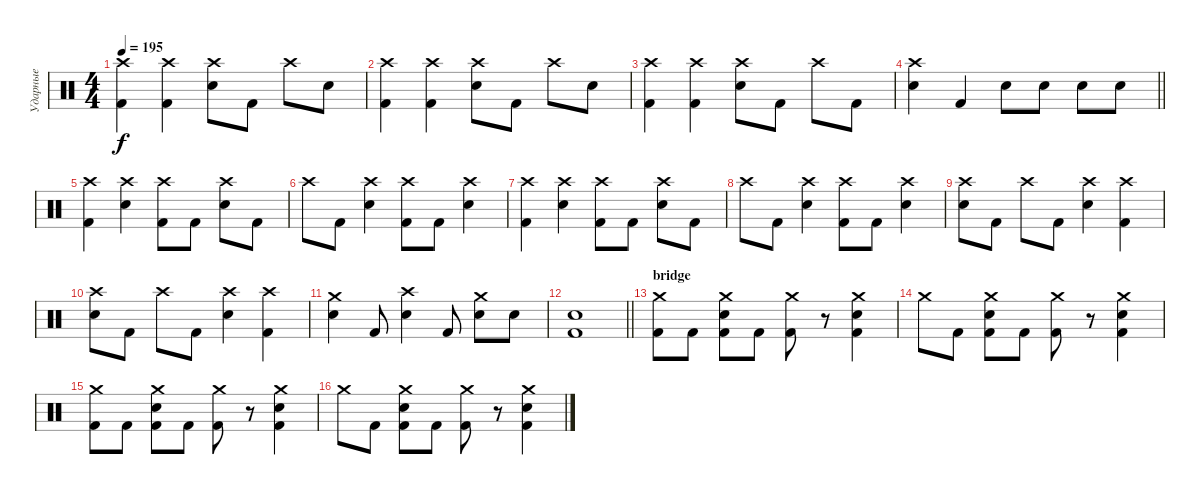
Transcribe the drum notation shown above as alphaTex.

\track ("Ударные" "Ударные") {instrument percussion}
\staff {score}
\articulation defaults
\ts (4 4)
\tempo 195
\clef neutral
\ks c
("Crash high (hit)" "Kick (hit) 2").4{dy f} ("Crash high (hit)" "Kick (hit) 2").4 ("Crash high (hit)" "Electric Snare (hit)").8 "Kick (hit) 2".8 "Crash high (hit)".8 "Electric Snare (hit)".8 |
("Crash high (hit)" "Kick (hit) 2").4 ("Crash high (hit)" "Kick (hit) 2").4 ("Crash high (hit)" "Electric Snare (hit)").8 "Kick (hit) 2".8 "Crash high (hit)".8 "Electric Snare (hit)".8 |
("Crash high (hit)" "Kick (hit) 2").4 ("Crash high (hit)" "Kick (hit) 2").4 ("Crash high (hit)" "Electric Snare (hit)").8 "Kick (hit) 2".8 "Crash high (hit)".8 "Kick (hit) 2".8 |
\barLineRight lightlight
("Crash high (hit)" "Electric Snare (hit)").4 "Kick (hit) 2".4 "Electric Snare (hit)".8 "Electric Snare (hit)".8 "Electric Snare (hit)".8 "Electric Snare (hit)".8 |
("Crash high (hit)" "Kick (hit) 2").4 ("Crash high (hit)" "Electric Snare (hit)").4 ("Crash high (hit)" "Kick (hit) 2").8 "Kick (hit) 2".8 ("Crash high (hit)" "Electric Snare (hit)").8 "Kick (hit) 2".8 |
"Crash high (hit)".8 "Kick (hit) 2".8 ("Crash high (hit)" "Electric Snare (hit)").4 ("Crash high (hit)" "Kick (hit) 2").8 "Kick (hit) 2".8 ("Crash high (hit)" "Electric Snare (hit)").4 |
("Crash high (hit)" "Kick (hit) 2").4 ("Crash high (hit)" "Electric Snare (hit)").4 ("Crash high (hit)" "Kick (hit) 2").8 "Kick (hit) 2".8 ("Crash high (hit)" "Electric Snare (hit)").8 "Kick (hit) 2".8 |
"Crash high (hit)".8 "Kick (hit) 2".8 ("Crash high (hit)" "Electric Snare (hit)").4 ("Crash high (hit)" "Kick (hit) 2").8 "Kick (hit) 2".8 ("Crash high (hit)" "Electric Snare (hit)").4 |
("Crash high (hit)" "Electric Snare (hit)").8 "Kick (hit) 2".8 "Crash high (hit)".8 "Kick (hit) 2".8 ("Crash high (hit)" "Electric Snare (hit)").4 ("Crash high (hit)" "Kick (hit) 2").4 |
("Crash high (hit)" "Electric Snare (hit)").8 "Kick (hit) 2".8 "Crash high (hit)".8 "Kick (hit) 2".8 ("Crash high (hit)" "Electric Snare (hit)").4 ("Crash high (hit)" "Kick (hit) 2").4 |
("Crash medium (hit)" "Electric Snare (hit)").4 "Kick (hit) 2".8 ("Crash high (hit)" "Electric Snare (hit)").4 "Kick (hit) 2".8 ("Crash medium (hit)" "Electric Snare (hit)").8 "Electric Snare (hit)".8 |
\barLineRight lightlight
("Electric Snare (hit)" "Kick (hit) 2").1 |
\section ("" "bridge")
("Crash medium (hit)" "Kick (hit) 2").8 "Kick (hit) 2".8 ("Crash medium (hit)" "Electric Snare (hit)" "Kick (hit) 2").8 "Kick (hit) 2".8 ("Crash medium (hit)" "Kick (hit) 2").8 r.8 ("Crash medium (hit)" "Electric Snare (hit)" "Kick (hit) 2").4 |
"Crash medium (hit)".8 "Kick (hit) 2".8 ("Crash medium (hit)" "Electric Snare (hit)" "Kick (hit) 2").8 "Kick (hit) 2".8 ("Crash medium (hit)" "Kick (hit) 2").8 r.8 ("Crash medium (hit)" "Electric Snare (hit)" "Kick (hit) 2").4 |
("Crash medium (hit)" "Kick (hit) 2").8 "Kick (hit) 2".8 ("Crash medium (hit)" "Electric Snare (hit)" "Kick (hit) 2").8 "Kick (hit) 2".8 ("Crash medium (hit)" "Kick (hit) 2").8 r.8 ("Crash medium (hit)" "Electric Snare (hit)" "Kick (hit) 2").4 |
"Crash medium (hit)".8 "Kick (hit) 2".8 ("Crash medium (hit)" "Electric Snare (hit)" "Kick (hit) 2").8 "Kick (hit) 2".8 ("Crash medium (hit)" "Kick (hit) 2").8 r.8 ("Crash medium (hit)" "Electric Snare (hit)" "Kick (hit) 2").4
